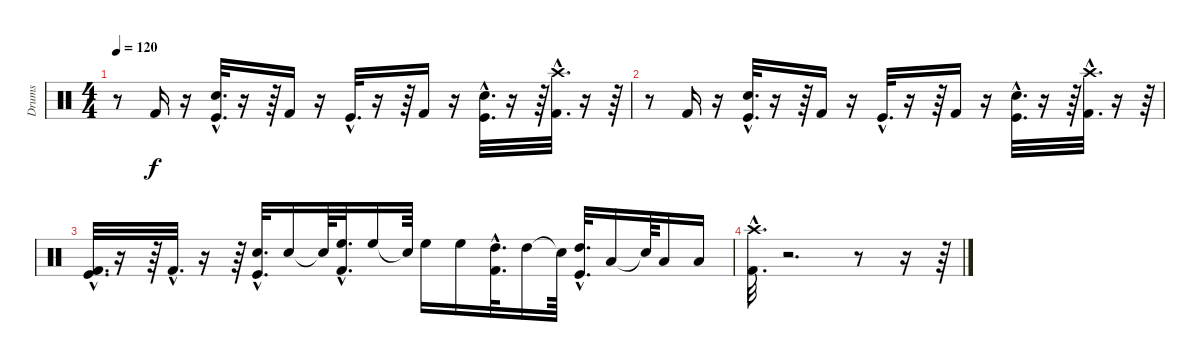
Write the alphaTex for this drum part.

\track ("Drums" "Drums") {instrument percussion}
\staff {score}
\articulation defaults
\ts (4 4)
\tempo 120
\clef neutral
\ks c
r.8{dy f} "Kick (hit) 2".16 r.16 ("Kick (hit)"{hac} "Snare (hit) 2"{hac}).32{d} r.16 r.64 "Kick (hit) 2".16 r.16 "Kick (hit)"{hac}.32{d} r.16 r.64 "Kick (hit) 2".16 r.16 ("Kick (hit)"{hac} "Snare (hit) 2"{hac}).32{d} r.16 r.64 ("Kick (hit) 2"{hac} "Crash high (hit)"{hac}).32{d} r.16 r.64 |
r.8 "Kick (hit) 2".16 r.16 ("Kick (hit)"{hac} "Snare (hit) 2"{hac}).32{d} r.16 r.64 "Kick (hit) 2".16 r.16 "Kick (hit)"{hac}.32{d} r.16 r.64 "Kick (hit) 2".16 r.16 ("Kick (hit)"{hac} "Snare (hit) 2"{hac}).32{d} r.16 r.64 ("Kick (hit) 2"{hac} "Crash high (hit)"{hac}).32{d} r.16 r.64 |
("Kick (hit)"{hac} "Kick (hit) 2"{hac}).32{d} r.16 r.64 "Kick (hit) 2"{hac}.32{d} r.16 r.64 ("Snare (hit) 2"{hac} "Kick (hit)"{hac}).32{d} "Snare (hit) 2".16 "Snare (hit)"{t}.64 ("High Floor Tom (hit)"{hac} "Kick (hit) 2"{hac}).32{d} "High Floor Tom (hit)".16 "Snare (hit)"{t}.64 "High Floor Tom (hit)".16 "High Floor Tom (hit)".16 ("High Tom (hit)"{hac} "Kick (hit) 2"{hac}).32{d} "High Tom (hit)".16 "Snare (hit)"{t}.64 ("Kick (hit)"{hac} "High Tom (hit)"{hac}).32{d} "Low Tom (hit)".16 "Snare (hit)"{t}.64 "Low Tom (hit)".16 "Low Floor Tom (hit)".16 |
("Kick (hit) 2"{hac} "Crash high (hit)"{hac}).32{d} r.2{d} r.8 r.16 r.64
